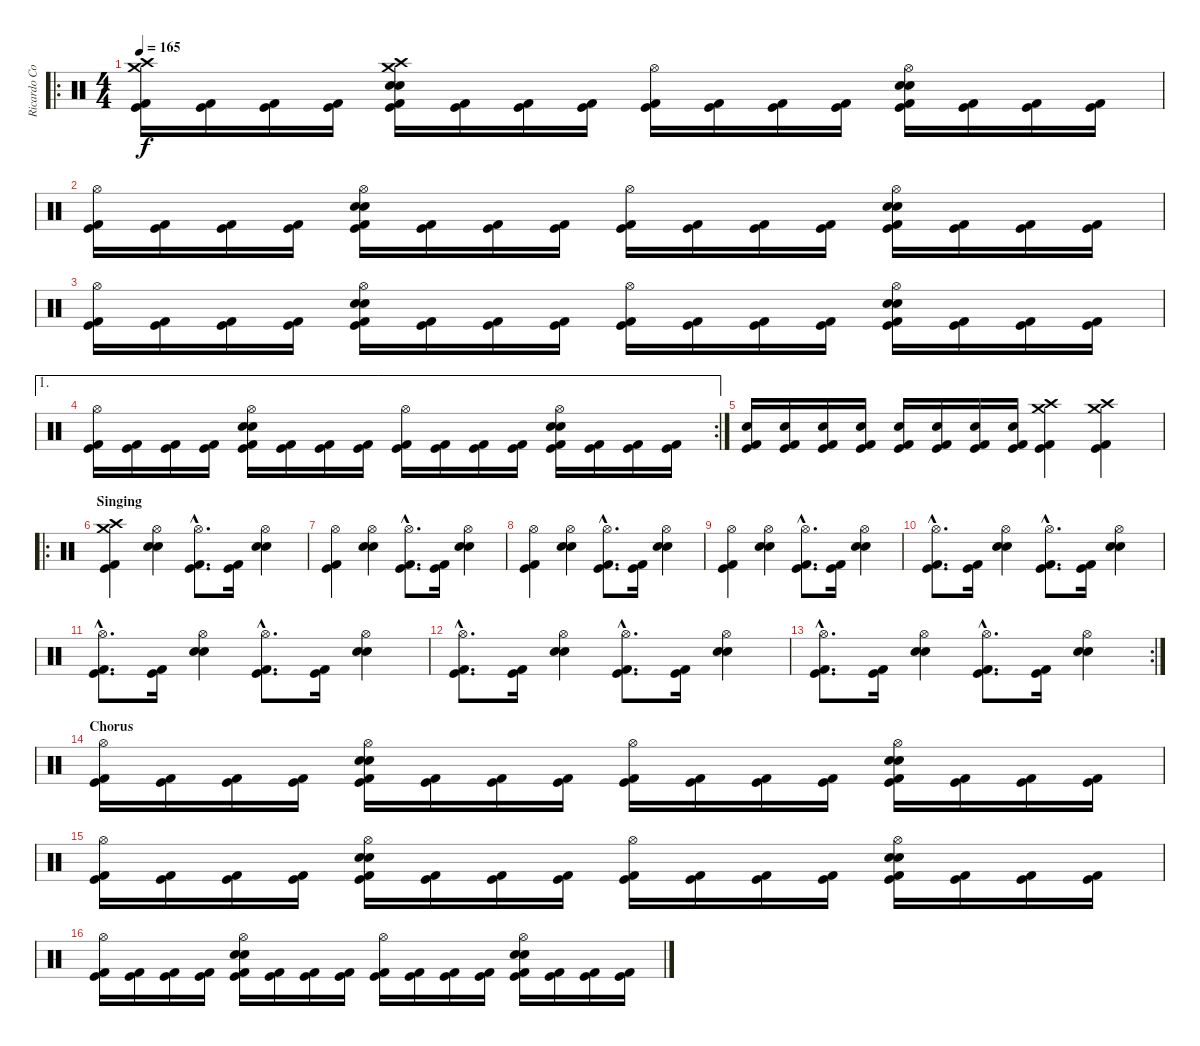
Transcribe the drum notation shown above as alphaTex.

\track ("Ricardo Confessori" "Ricardo Co") {instrument percussion}
\staff {score}
\articulation defaults
\ro
\ts (4 4)
\tempo 165
\clef neutral
\ks c
("Crash high (hit)" "Crash medium (hit)" "Kick (hit) 2" "Kick (hit)").16{dy f} ("Kick (hit) 2" "Kick (hit)").16 ("Kick (hit) 2" "Kick (hit)").16 ("Kick (hit) 2" "Kick (hit)").16 ("Crash high (hit)" "Crash medium (hit)" "Electric Snare (hit)" "Snare (hit) 2" "Kick (hit) 2" "Kick (hit)").16 ("Kick (hit) 2" "Kick (hit)").16 ("Kick (hit) 2" "Kick (hit)").16 ("Kick (hit) 2" "Kick (hit)").16 ("Hi-Hat (open)" "Kick (hit) 2" "Kick (hit)").16 ("Kick (hit) 2" "Kick (hit)").16 ("Kick (hit) 2" "Kick (hit)").16 ("Kick (hit) 2" "Kick (hit)").16 ("Hi-Hat (open)" "Electric Snare (hit)" "Snare (hit) 2" "Kick (hit) 2" "Kick (hit)").16 ("Kick (hit) 2" "Kick (hit)").16 ("Kick (hit) 2" "Kick (hit)").16 ("Kick (hit) 2" "Kick (hit)").16 |
("Hi-Hat (open)" "Kick (hit) 2" "Kick (hit)").16 ("Kick (hit) 2" "Kick (hit)").16 ("Kick (hit) 2" "Kick (hit)").16 ("Kick (hit) 2" "Kick (hit)").16 ("Hi-Hat (open)" "Electric Snare (hit)" "Snare (hit) 2" "Kick (hit) 2" "Kick (hit)").16 ("Kick (hit) 2" "Kick (hit)").16 ("Kick (hit) 2" "Kick (hit)").16 ("Kick (hit) 2" "Kick (hit)").16 ("Hi-Hat (open)" "Kick (hit) 2" "Kick (hit)").16 ("Kick (hit) 2" "Kick (hit)").16 ("Kick (hit) 2" "Kick (hit)").16 ("Kick (hit) 2" "Kick (hit)").16 ("Hi-Hat (open)" "Electric Snare (hit)" "Snare (hit) 2" "Kick (hit) 2" "Kick (hit)").16 ("Kick (hit) 2" "Kick (hit)").16 ("Kick (hit) 2" "Kick (hit)").16 ("Kick (hit) 2" "Kick (hit)").16 |
("Hi-Hat (open)" "Kick (hit) 2" "Kick (hit)").16 ("Kick (hit) 2" "Kick (hit)").16 ("Kick (hit) 2" "Kick (hit)").16 ("Kick (hit) 2" "Kick (hit)").16 ("Hi-Hat (open)" "Electric Snare (hit)" "Snare (hit) 2" "Kick (hit) 2" "Kick (hit)").16 ("Kick (hit) 2" "Kick (hit)").16 ("Kick (hit) 2" "Kick (hit)").16 ("Kick (hit) 2" "Kick (hit)").16 ("Hi-Hat (open)" "Kick (hit) 2" "Kick (hit)").16 ("Kick (hit) 2" "Kick (hit)").16 ("Kick (hit) 2" "Kick (hit)").16 ("Kick (hit) 2" "Kick (hit)").16 ("Hi-Hat (open)" "Electric Snare (hit)" "Snare (hit) 2" "Kick (hit) 2" "Kick (hit)").16 ("Kick (hit) 2" "Kick (hit)").16 ("Kick (hit) 2" "Kick (hit)").16 ("Kick (hit) 2" "Kick (hit)").16 |
\ae 1
\rc 2
("Hi-Hat (open)" "Kick (hit) 2" "Kick (hit)").16 ("Kick (hit) 2" "Kick (hit)").16 ("Kick (hit) 2" "Kick (hit)").16 ("Kick (hit) 2" "Kick (hit)").16 ("Hi-Hat (open)" "Electric Snare (hit)" "Snare (hit) 2" "Kick (hit) 2" "Kick (hit)").16 ("Kick (hit) 2" "Kick (hit)").16 ("Kick (hit) 2" "Kick (hit)").16 ("Kick (hit) 2" "Kick (hit)").16 ("Hi-Hat (open)" "Kick (hit) 2" "Kick (hit)").16 ("Kick (hit) 2" "Kick (hit)").16 ("Kick (hit) 2" "Kick (hit)").16 ("Kick (hit) 2" "Kick (hit)").16 ("Hi-Hat (open)" "Electric Snare (hit)" "Snare (hit) 2" "Kick (hit) 2" "Kick (hit)").16 ("Kick (hit) 2" "Kick (hit)").16 ("Kick (hit) 2" "Kick (hit)").16 ("Kick (hit) 2" "Kick (hit)").16 |
("Electric Snare (hit)" "Kick (hit) 2" "Kick (hit)").16 ("Electric Snare (hit)" "Kick (hit) 2" "Kick (hit)").16 ("Electric Snare (hit)" "Kick (hit) 2" "Kick (hit)").16 ("Electric Snare (hit)" "Kick (hit) 2" "Kick (hit)").16 ("Electric Snare (hit)" "Kick (hit) 2" "Kick (hit)").16 ("Electric Snare (hit)" "Kick (hit) 2" "Kick (hit)").16 ("Electric Snare (hit)" "Kick (hit) 2" "Kick (hit)").16 ("Electric Snare (hit)" "Kick (hit) 2" "Kick (hit)").16 ("Crash medium (hit)" "Crash high (hit)" "Kick (hit) 2" "Kick (hit)").4 ("Crash medium (hit)" "Crash high (hit)" "Kick (hit) 2" "Kick (hit)").4 |
\ro
\section ("" "Singing")
("Crash high (hit)" "Crash medium (hit)" "Kick (hit) 2" "Kick (hit)").4 ("Hi-Hat (open)" "Electric Snare (hit)" "Snare (hit) 2").4 ("Hi-Hat (open)"{hac} "Kick (hit) 2"{hac} "Kick (hit)"{hac}).8{d} ("Kick (hit) 2" "Kick (hit)").16 ("Hi-Hat (open)" "Electric Snare (hit)" "Snare (hit) 2").4 |
("Hi-Hat (open)" "Kick (hit) 2" "Kick (hit)").4 ("Hi-Hat (open)" "Electric Snare (hit)" "Snare (hit) 2").4 ("Hi-Hat (open)"{hac} "Kick (hit) 2"{hac} "Kick (hit)"{hac}).8{d} ("Kick (hit) 2" "Kick (hit)").16 ("Hi-Hat (open)" "Electric Snare (hit)" "Snare (hit) 2").4 |
("Hi-Hat (open)" "Kick (hit) 2" "Kick (hit)").4 ("Hi-Hat (open)" "Electric Snare (hit)" "Snare (hit) 2").4 ("Hi-Hat (open)"{hac} "Kick (hit) 2"{hac} "Kick (hit)"{hac}).8{d} ("Kick (hit) 2" "Kick (hit)").16 ("Hi-Hat (open)" "Electric Snare (hit)" "Snare (hit) 2").4 |
("Hi-Hat (open)" "Kick (hit) 2" "Kick (hit)").4 ("Hi-Hat (open)" "Electric Snare (hit)" "Snare (hit) 2").4 ("Hi-Hat (open)"{hac} "Kick (hit) 2"{hac} "Kick (hit)"{hac}).8{d} ("Kick (hit) 2" "Kick (hit)").16 ("Hi-Hat (open)" "Electric Snare (hit)" "Snare (hit) 2").4 |
("Hi-Hat (open)"{hac} "Kick (hit) 2"{hac} "Kick (hit)"{hac}).8{d} ("Kick (hit) 2" "Kick (hit)").16 ("Hi-Hat (open)" "Electric Snare (hit)" "Snare (hit) 2").4 ("Hi-Hat (open)"{hac} "Kick (hit) 2"{hac} "Kick (hit)"{hac}).8{d} ("Kick (hit) 2" "Kick (hit)").16 ("Hi-Hat (open)" "Electric Snare (hit)" "Snare (hit) 2").4 |
("Hi-Hat (open)"{hac} "Kick (hit) 2"{hac} "Kick (hit)"{hac}).8{d} ("Kick (hit) 2" "Kick (hit)").16 ("Hi-Hat (open)" "Electric Snare (hit)" "Snare (hit) 2").4 ("Hi-Hat (open)"{hac} "Kick (hit) 2"{hac} "Kick (hit)"{hac}).8{d} ("Kick (hit) 2" "Kick (hit)").16 ("Hi-Hat (open)" "Electric Snare (hit)" "Snare (hit) 2").4 |
("Hi-Hat (open)"{hac} "Kick (hit) 2"{hac} "Kick (hit)"{hac}).8{d} ("Kick (hit) 2" "Kick (hit)").16 ("Hi-Hat (open)" "Electric Snare (hit)" "Snare (hit) 2").4 ("Hi-Hat (open)"{hac} "Kick (hit) 2"{hac} "Kick (hit)"{hac}).8{d} ("Kick (hit) 2" "Kick (hit)").16 ("Hi-Hat (open)" "Electric Snare (hit)" "Snare (hit) 2").4 |
\rc 2
("Hi-Hat (open)"{hac} "Kick (hit) 2"{hac} "Kick (hit)"{hac}).8{d} ("Kick (hit) 2" "Kick (hit)").16 ("Hi-Hat (open)" "Electric Snare (hit)" "Snare (hit) 2").4 ("Hi-Hat (open)"{hac} "Kick (hit) 2"{hac} "Kick (hit)"{hac}).8{d} ("Kick (hit) 2" "Kick (hit)").16 ("Hi-Hat (open)" "Electric Snare (hit)" "Snare (hit) 2").4 |
\section ("" "Chorus")
("Hi-Hat (open)" "Kick (hit) 2" "Kick (hit)").16 ("Kick (hit) 2" "Kick (hit)").16 ("Kick (hit) 2" "Kick (hit)").16 ("Kick (hit) 2" "Kick (hit)").16 ("Hi-Hat (open)" "Electric Snare (hit)" "Snare (hit) 2" "Kick (hit) 2" "Kick (hit)").16 ("Kick (hit) 2" "Kick (hit)").16 ("Kick (hit) 2" "Kick (hit)").16 ("Kick (hit) 2" "Kick (hit)").16 ("Hi-Hat (open)" "Kick (hit) 2" "Kick (hit)").16 ("Kick (hit) 2" "Kick (hit)").16 ("Kick (hit) 2" "Kick (hit)").16 ("Kick (hit) 2" "Kick (hit)").16 ("Hi-Hat (open)" "Electric Snare (hit)" "Snare (hit) 2" "Kick (hit) 2" "Kick (hit)").16 ("Kick (hit) 2" "Kick (hit)").16 ("Kick (hit) 2" "Kick (hit)").16 ("Kick (hit) 2" "Kick (hit)").16 |
("Hi-Hat (open)" "Kick (hit) 2" "Kick (hit)").16 ("Kick (hit) 2" "Kick (hit)").16 ("Kick (hit) 2" "Kick (hit)").16 ("Kick (hit) 2" "Kick (hit)").16 ("Hi-Hat (open)" "Electric Snare (hit)" "Snare (hit) 2" "Kick (hit) 2" "Kick (hit)").16 ("Kick (hit) 2" "Kick (hit)").16 ("Kick (hit) 2" "Kick (hit)").16 ("Kick (hit) 2" "Kick (hit)").16 ("Hi-Hat (open)" "Kick (hit) 2" "Kick (hit)").16 ("Kick (hit) 2" "Kick (hit)").16 ("Kick (hit) 2" "Kick (hit)").16 ("Kick (hit) 2" "Kick (hit)").16 ("Hi-Hat (open)" "Electric Snare (hit)" "Snare (hit) 2" "Kick (hit) 2" "Kick (hit)").16 ("Kick (hit) 2" "Kick (hit)").16 ("Kick (hit) 2" "Kick (hit)").16 ("Kick (hit) 2" "Kick (hit)").16 |
("Hi-Hat (open)" "Kick (hit) 2" "Kick (hit)").16 ("Kick (hit) 2" "Kick (hit)").16 ("Kick (hit) 2" "Kick (hit)").16 ("Kick (hit) 2" "Kick (hit)").16 ("Hi-Hat (open)" "Electric Snare (hit)" "Snare (hit) 2" "Kick (hit) 2" "Kick (hit)").16 ("Kick (hit) 2" "Kick (hit)").16 ("Kick (hit) 2" "Kick (hit)").16 ("Kick (hit) 2" "Kick (hit)").16 ("Hi-Hat (open)" "Kick (hit) 2" "Kick (hit)").16 ("Kick (hit) 2" "Kick (hit)").16 ("Kick (hit) 2" "Kick (hit)").16 ("Kick (hit) 2" "Kick (hit)").16 ("Hi-Hat (open)" "Electric Snare (hit)" "Snare (hit) 2" "Kick (hit) 2" "Kick (hit)").16 ("Kick (hit) 2" "Kick (hit)").16 ("Kick (hit) 2" "Kick (hit)").16 ("Kick (hit) 2" "Kick (hit)").16
